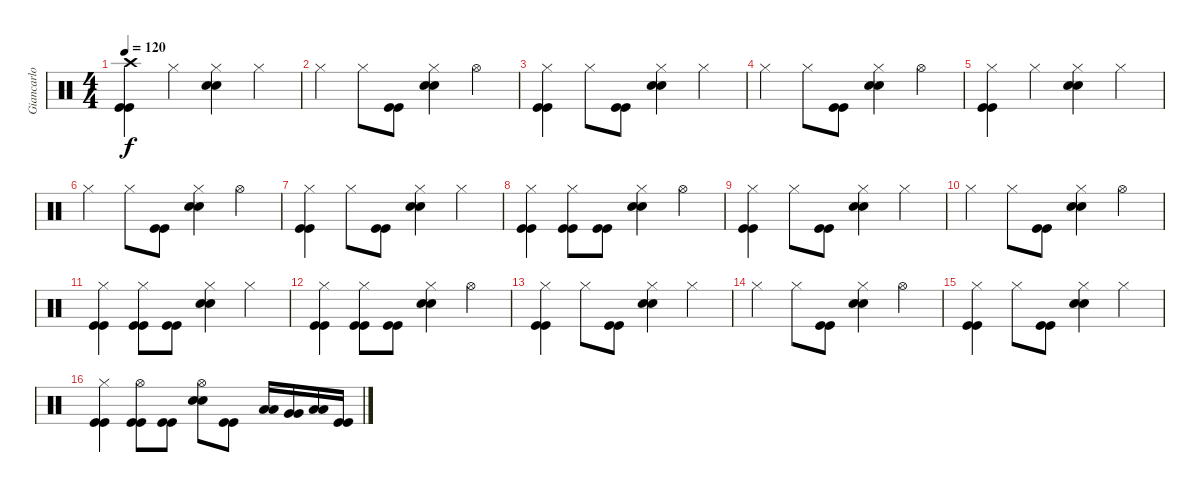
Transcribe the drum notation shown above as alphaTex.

\track ("Giancarlo Autenzio - Drums" "Giancarlo ") {instrument percussion}
\staff {score}
\articulation defaults
\ts (4 4)
\tempo 120
\clef neutral
\ks c
("Kick (hit)" "Kick (hit)" "Crash high (hit)").4{dy f} "Hi-Hat (closed)".4 ("Electric Snare (hit)" "Electric Snare (hit)" "Hi-Hat (closed)").4 "Hi-Hat (closed)".4 |
"Hi-Hat (closed)".4 "Hi-Hat (closed)".8 ("Kick (hit)" "Kick (hit)").8 ("Electric Snare (hit)" "Electric Snare (hit)" "Hi-Hat (closed)").4 "Hi-Hat (open)".4 |
("Kick (hit)" "Kick (hit)" "Hi-Hat (closed)").4 "Hi-Hat (closed)".8 ("Kick (hit)" "Kick (hit)").8 ("Electric Snare (hit)" "Electric Snare (hit)" "Hi-Hat (closed)").4 "Hi-Hat (closed)".4 |
"Hi-Hat (closed)".4 "Hi-Hat (closed)".8 ("Kick (hit)" "Kick (hit)").8 ("Electric Snare (hit)" "Electric Snare (hit)" "Hi-Hat (closed)").4 "Hi-Hat (open)".4 |
("Kick (hit)" "Kick (hit)" "Hi-Hat (closed)").4 "Hi-Hat (closed)".4 ("Electric Snare (hit)" "Electric Snare (hit)" "Hi-Hat (closed)").4 "Hi-Hat (closed)".4 |
"Hi-Hat (closed)".4 "Hi-Hat (closed)".8 ("Kick (hit)" "Kick (hit)").8 ("Electric Snare (hit)" "Electric Snare (hit)" "Hi-Hat (closed)").4 "Hi-Hat (open)".4 |
("Kick (hit)" "Kick (hit)" "Hi-Hat (closed)").4 "Hi-Hat (closed)".8 ("Kick (hit)" "Kick (hit)").8 ("Electric Snare (hit)" "Electric Snare (hit)" "Hi-Hat (closed)").4 "Hi-Hat (closed)".4 |
("Kick (hit)" "Kick (hit)" "Hi-Hat (closed)").4 ("Kick (hit)" "Kick (hit)" "Hi-Hat (closed)").8 ("Kick (hit)" "Kick (hit)").8 ("Electric Snare (hit)" "Electric Snare (hit)" "Hi-Hat (closed)").4 "Hi-Hat (open)".4 |
("Kick (hit)" "Kick (hit)" "Hi-Hat (closed)").4 "Hi-Hat (closed)".8 ("Kick (hit)" "Kick (hit)").8 ("Electric Snare (hit)" "Electric Snare (hit)" "Hi-Hat (closed)").4 "Hi-Hat (closed)".4 |
"Hi-Hat (closed)".4 "Hi-Hat (closed)".8 ("Kick (hit)" "Kick (hit)").8 ("Electric Snare (hit)" "Electric Snare (hit)" "Hi-Hat (closed)").4 "Hi-Hat (open)".4 |
("Kick (hit)" "Kick (hit)" "Hi-Hat (closed)").4 ("Kick (hit)" "Kick (hit)" "Hi-Hat (closed)").8 ("Kick (hit)" "Kick (hit)").8 ("Electric Snare (hit)" "Electric Snare (hit)" "Hi-Hat (closed)").4 "Hi-Hat (closed)".4 |
("Kick (hit)" "Kick (hit)" "Hi-Hat (closed)").4 ("Kick (hit)" "Kick (hit)" "Hi-Hat (closed)").8 ("Kick (hit)" "Kick (hit)").8 ("Electric Snare (hit)" "Electric Snare (hit)" "Hi-Hat (closed)").4 "Hi-Hat (open)".4 |
("Kick (hit)" "Kick (hit)" "Hi-Hat (closed)").4 "Hi-Hat (closed)".8 ("Kick (hit)" "Kick (hit)").8 ("Electric Snare (hit)" "Electric Snare (hit)" "Hi-Hat (closed)").4 "Hi-Hat (closed)".4 |
"Hi-Hat (closed)".4 "Hi-Hat (closed)".8 ("Kick (hit)" "Kick (hit)").8 ("Electric Snare (hit)" "Electric Snare (hit)" "Hi-Hat (closed)").4 "Hi-Hat (open)".4 |
("Kick (hit)" "Kick (hit)" "Hi-Hat (closed)").4 "Hi-Hat (closed)".8 ("Kick (hit)" "Kick (hit)").8 ("Electric Snare (hit)" "Electric Snare (hit)" "Hi-Hat (closed)").4 "Hi-Hat (closed)".4 |
("Kick (hit)" "Kick (hit)" "Hi-Hat (closed)").4 ("Kick (hit)" "Kick (hit)" "Hi-Hat (open)").8 ("Kick (hit)" "Kick (hit)").8 ("Electric Snare (hit)" "Electric Snare (hit)" "Hi-Hat (open)").8 ("Kick (hit)" "Kick (hit)").8 ("Low Tom (hit)" "Low Tom (hit)").16 ("Very Low Tom (hit)" "Very Low Tom (hit)").16 ("Low Floor Tom (hit)" "Low Floor Tom (hit)").16 ("Kick (hit)" "Kick (hit)").16
